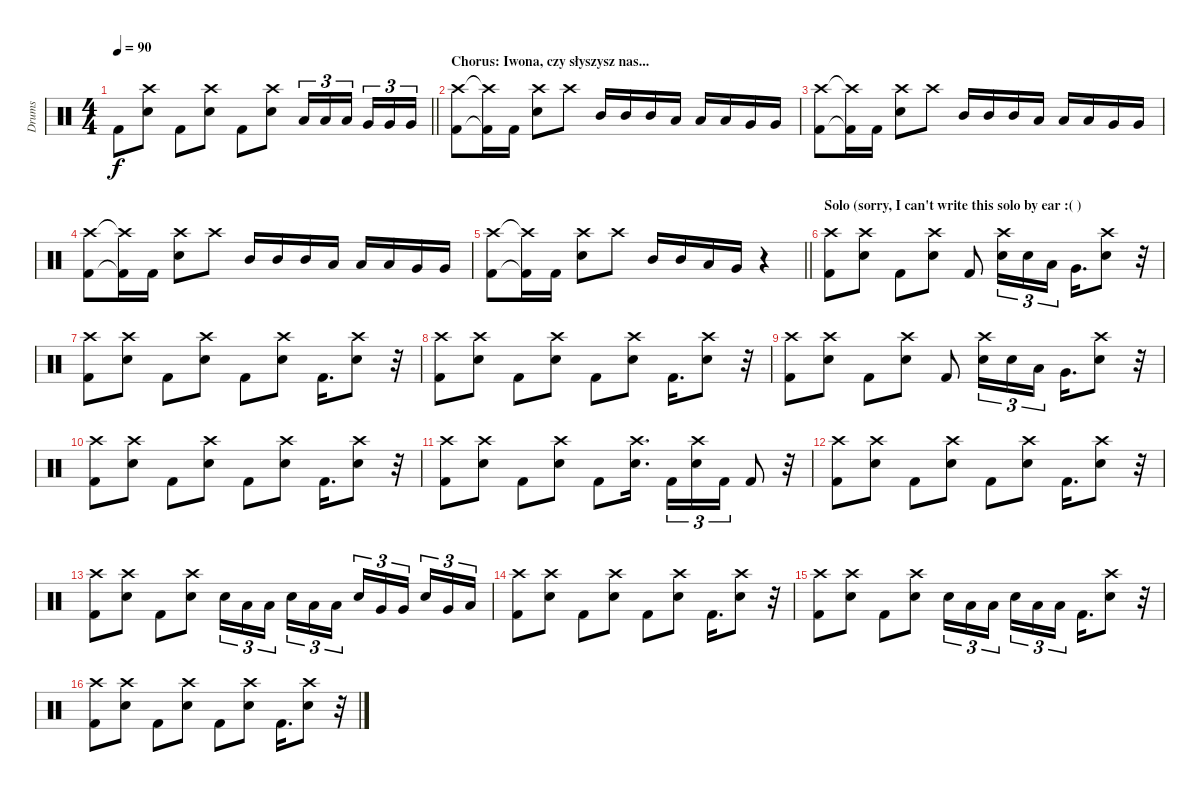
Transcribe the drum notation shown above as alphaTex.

\track ("Drums" "Drums") {instrument percussion}
\staff {score}
\articulation defaults
\ts (4 4)
\tempo 90
\clef neutral
\barLineRight lightlight
\ks c "Kick (hit) 2".8{dy f}
("Crash high (hit)" "Snare (hit) 2").8 "Kick (hit) 2".8 ("Crash high (hit)" "Snare (hit) 2").8 "Kick (hit) 2".8 ("Crash high (hit)" "Snare (hit) 2").8 "Low Tom (hit)".16{tu (3 2)} "Low Tom (hit)".16{tu (3 2)} "Low Tom (hit)".16{tu (3 2) beam splitsecondary} "Very Low Tom (hit)".16{tu (3 2)} "Very Low Tom (hit)".16{tu (3 2)} "Very Low Tom (hit)".16{tu (3 2)} |
\section ("" "Chorus: Iwona, czy słyszysz nas...")
("Crash high (hit)" "Kick (hit) 2").8 ("Crash high (hit)"{t} "Kick (hit) 2"{t}).16 "Kick (hit) 2".16 ("Crash high (hit)" "Snare (hit) 2").8 "Crash high (hit)".8 "Mid Tom (hit)".16 "Mid Tom (hit)".16 "Mid Tom (hit)".16 "Low Tom (hit)".16 "Low Tom (hit)".16 "Low Tom (hit)".16 "Very Low Tom (hit)".16 "Very Low Tom (hit)".16 |
("Crash high (hit)" "Kick (hit) 2").8 ("Crash high (hit)"{t} "Kick (hit) 2"{t}).16 "Kick (hit) 2".16 ("Crash high (hit)" "Snare (hit) 2").8 "Crash high (hit)".8 "Mid Tom (hit)".16 "Mid Tom (hit)".16 "Mid Tom (hit)".16 "Low Tom (hit)".16 "Low Tom (hit)".16 "Low Tom (hit)".16 "Very Low Tom (hit)".16 "Very Low Tom (hit)".16 |
("Crash high (hit)" "Kick (hit) 2").8 ("Crash high (hit)"{t} "Kick (hit) 2"{t}).16 "Kick (hit) 2".16 ("Crash high (hit)" "Snare (hit) 2").8 "Crash high (hit)".8 "Mid Tom (hit)".16 "Mid Tom (hit)".16 "Mid Tom (hit)".16 "Low Tom (hit)".16 "Low Tom (hit)".16 "Low Tom (hit)".16 "Very Low Tom (hit)".16 "Very Low Tom (hit)".16 |
\barLineRight lightlight
("Crash high (hit)" "Kick (hit) 2").8 ("Crash high (hit)"{t} "Kick (hit) 2"{t}).16 "Kick (hit) 2".16 ("Crash high (hit)" "Snare (hit) 2").8 "Crash high (hit)".8 "Mid Tom (hit)".16 "Mid Tom (hit)".16 "Low Tom (hit)".16 "Very Low Tom (hit)".16 r.4 |
\section ("" "Solo (sorry, I can't write this solo by ear :( )")
("Crash high (hit)" "Kick (hit) 2").8 ("Crash high (hit)" "Snare (hit) 2").8 "Kick (hit) 2".8 ("Crash high (hit)" "Snare (hit) 2").8 "Kick (hit) 2".8 ("Crash high (hit)" "Snare (hit) 2").16{tu (3 2)} "Snare (hit) 2".16{tu (3 2)} "Low Tom (hit)".16{tu (3 2)} "Very Low Tom (hit)".16{d} ("Crash high (hit)" "Snare (hit) 2").8 r.32 |
("Crash high (hit)" "Kick (hit) 2").8 ("Crash high (hit)" "Snare (hit) 2").8 "Kick (hit) 2".8 ("Crash high (hit)" "Snare (hit) 2").8 "Kick (hit) 2".8 ("Crash high (hit)" "Snare (hit) 2").8 "Kick (hit) 2".16{d} ("Crash high (hit)" "Snare (hit) 2").8 r.32 |
("Crash high (hit)" "Kick (hit) 2").8 ("Crash high (hit)" "Snare (hit) 2").8 "Kick (hit) 2".8 ("Crash high (hit)" "Snare (hit) 2").8 "Kick (hit) 2".8 ("Crash high (hit)" "Snare (hit) 2").8 "Kick (hit) 2".16{d} ("Crash high (hit)" "Snare (hit) 2").8 r.32 |
("Crash high (hit)" "Kick (hit) 2").8 ("Crash high (hit)" "Snare (hit) 2").8 "Kick (hit) 2".8 ("Crash high (hit)" "Snare (hit) 2").8 "Kick (hit) 2".8 ("Crash high (hit)" "Snare (hit) 2").16{tu (3 2)} "Snare (hit) 2".16{tu (3 2)} "Low Tom (hit)".16{tu (3 2)} "Very Low Tom (hit)".16{d} ("Crash high (hit)" "Snare (hit) 2").8 r.32 |
("Crash high (hit)" "Kick (hit) 2").8 ("Crash high (hit)" "Snare (hit) 2").8 "Kick (hit) 2".8 ("Crash high (hit)" "Snare (hit) 2").8 "Kick (hit) 2".8 ("Crash high (hit)" "Snare (hit) 2").8 "Kick (hit) 2".16{d} ("Crash high (hit)" "Snare (hit) 2").8 r.32 |
("Crash high (hit)" "Kick (hit) 2").8 ("Crash high (hit)" "Snare (hit) 2").8 "Kick (hit) 2".8 ("Crash high (hit)" "Snare (hit) 2").8 "Kick (hit) 2".8 ("Crash high (hit)" "Snare (hit) 2").16{d} "Kick (hit) 2".16{tu (3 2)} ("Crash high (hit)" "Snare (hit) 2").16{tu (3 2)} "Kick (hit) 2".16{tu (3 2)} "Kick (hit) 2".8 r.32 |
("Crash high (hit)" "Kick (hit) 2").8 ("Crash high (hit)" "Snare (hit) 2").8 "Kick (hit) 2".8 ("Crash high (hit)" "Snare (hit) 2").8 "Kick (hit) 2".8 ("Crash high (hit)" "Snare (hit) 2").8 "Kick (hit) 2".16{d} ("Crash high (hit)" "Snare (hit) 2").8 r.32 |
("Crash high (hit)" "Kick (hit) 2").8 ("Crash high (hit)" "Snare (hit) 2").8 "Kick (hit) 2".8 ("Crash high (hit)" "Snare (hit) 2").8 "Snare (hit) 2".16{tu (3 2)} "Low Tom (hit)".16{tu (3 2)} "Low Tom (hit)".16{tu (3 2) beam splitsecondary} "Snare (hit) 2".16{tu (3 2)} "Low Tom (hit)".16{tu (3 2)} "Low Tom (hit)".16{tu (3 2)} "Snare (hit) 2".16{tu (3 2)} "Very Low Tom (hit)".16{tu (3 2)} "Very Low Tom (hit)".16{tu (3 2) beam splitsecondary} "Snare (hit) 2".16{tu (3 2)} "Very Low Tom (hit)".16{tu (3 2)} "Low Floor Tom (hit)".16{tu (3 2)} |
("Crash high (hit)" "Kick (hit) 2").8 ("Crash high (hit)" "Snare (hit) 2").8 "Kick (hit) 2".8 ("Crash high (hit)" "Snare (hit) 2").8 "Kick (hit) 2".8 ("Crash high (hit)" "Snare (hit) 2").8 "Kick (hit) 2".16{d} ("Crash high (hit)" "Snare (hit) 2").8 r.32 |
("Crash high (hit)" "Kick (hit) 2").8 ("Crash high (hit)" "Snare (hit) 2").8 "Kick (hit) 2".8 ("Crash high (hit)" "Snare (hit) 2").8 "Snare (hit) 2".16{tu (3 2)} "Low Tom (hit)".16{tu (3 2)} "Low Tom (hit)".16{tu (3 2) beam splitsecondary} "Snare (hit) 2".16{tu (3 2)} "Low Tom (hit)".16{tu (3 2)} "Low Tom (hit)".16{tu (3 2)} "Kick (hit) 2".16{d} ("Crash high (hit)" "Snare (hit) 2").8 r.32 |
("Crash high (hit)" "Kick (hit) 2").8 ("Crash high (hit)" "Snare (hit) 2").8 "Kick (hit) 2".8 ("Crash high (hit)" "Snare (hit) 2").8 "Kick (hit) 2".8 ("Crash high (hit)" "Snare (hit) 2").8 "Kick (hit) 2".16{d} ("Crash high (hit)" "Snare (hit) 2").8 r.32
